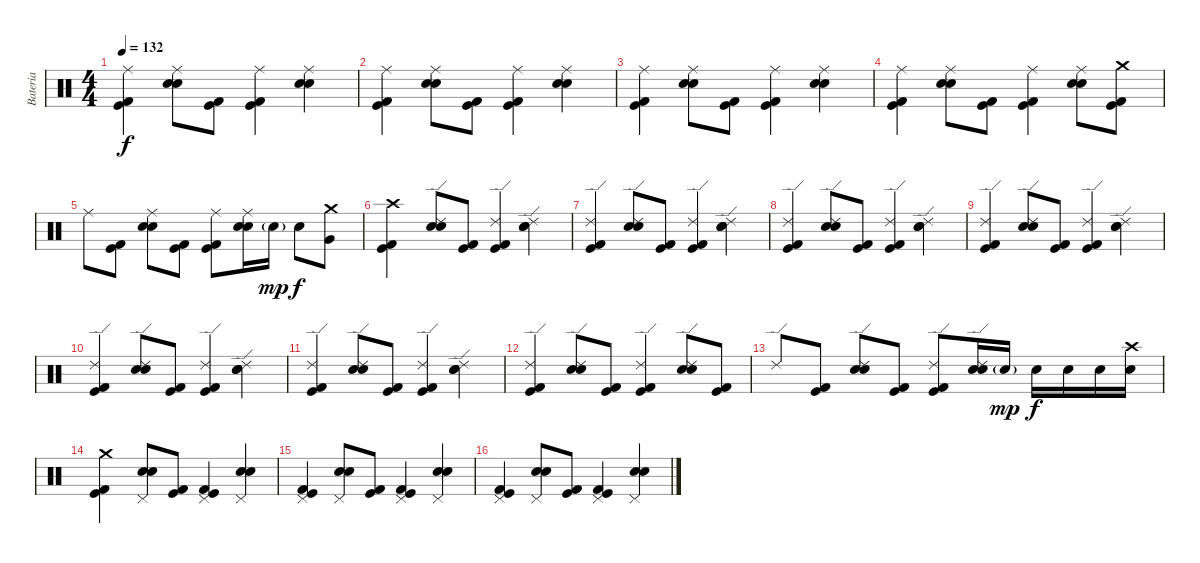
\track ("Bateria" "Bateria") {instrument percussion}
\staff {score}
\articulation defaults
\ts (4 4)
\tempo 132
\clef neutral
\ks c
("Ride (middle)" "Kick (hit) 2" "Kick (hit)").4{dy f} ("Ride (middle)" "Snare (hit) 2" "Electric Snare (hit)").8 ("Kick (hit) 2" "Kick (hit)").8 ("Ride (middle)" "Kick (hit) 2" "Kick (hit)").4 ("Ride (middle)" "Snare (hit) 2" "Electric Snare (hit)").4 |
("Ride (middle)" "Kick (hit) 2" "Kick (hit)").4 ("Ride (middle)" "Snare (hit) 2" "Electric Snare (hit)").8 ("Kick (hit) 2" "Kick (hit)").8 ("Ride (middle)" "Kick (hit) 2" "Kick (hit)").4 ("Ride (middle)" "Snare (hit) 2" "Electric Snare (hit)").4 |
("Ride (middle)" "Kick (hit) 2" "Kick (hit)").4 ("Ride (middle)" "Snare (hit) 2" "Electric Snare (hit)").8 ("Kick (hit) 2" "Kick (hit)").8 ("Ride (middle)" "Kick (hit) 2" "Kick (hit)").4 ("Ride (middle)" "Snare (hit) 2" "Electric Snare (hit)").4 |
("Ride (middle)" "Kick (hit) 2" "Kick (hit)").4 ("Ride (middle)" "Snare (hit) 2" "Electric Snare (hit)").8 ("Kick (hit) 2" "Kick (hit)").8 ("Ride (middle)" "Kick (hit) 2" "Kick (hit)").4 ("Ride (middle)" "Snare (hit) 2" "Electric Snare (hit)").8 ("Crash medium (hit)" "Kick (hit)" "Kick (hit) 2").8 |
"Ride (middle)".8 ("Kick (hit)" "Kick (hit) 2").8 ("Ride (middle)" "Snare (hit) 2" "Electric Snare (hit)").8 ("Kick (hit)" "Kick (hit) 2").8 ("Ride (middle)" "Kick (hit)" "Kick (hit) 2").8 ("Ride (middle)" "Snare (hit) 2" "Electric Snare (hit)").16 "Snare (hit) 2"{g}.16{dy mp} "Snare (hit) 2".8{dy f} ("Crash medium (hit)" "Very Low Tom (hit)").8 |
("Crash high (hit)" "Kick (hit) 2" "Kick (hit)").4 ("Ride (edge) 2" "Snare (hit) 2" "Electric Snare (hit)").8 ("Kick (hit) 2" "Kick (hit)").8 ("Ride (edge) 2" "Kick (hit) 2" "Kick (hit)").4 ("Ride (edge) 2" "Snare (hit) 2" "Electric Snare (hit)").4 |
("Ride (edge) 2" "Kick (hit) 2" "Kick (hit)").4 ("Ride (edge) 2" "Snare (hit) 2" "Electric Snare (hit)").8 ("Kick (hit) 2" "Kick (hit)").8 ("Ride (edge) 2" "Kick (hit) 2" "Kick (hit)").4 ("Ride (edge) 2" "Snare (hit) 2" "Electric Snare (hit)").4 |
("Ride (edge) 2" "Kick (hit) 2" "Kick (hit)").4 ("Ride (edge) 2" "Snare (hit) 2" "Electric Snare (hit)").8 ("Kick (hit) 2" "Kick (hit)").8 ("Ride (edge) 2" "Kick (hit) 2" "Kick (hit)").4 ("Ride (edge) 2" "Snare (hit) 2" "Electric Snare (hit)").4 |
("Ride (edge) 2" "Kick (hit) 2" "Kick (hit)").4 ("Ride (edge) 2" "Snare (hit) 2" "Electric Snare (hit)").8 ("Kick (hit) 2" "Kick (hit)").8 ("Ride (edge) 2" "Kick (hit) 2" "Kick (hit)").4 ("Ride (edge) 2" "Snare (hit) 2" "Electric Snare (hit)").4 |
("Ride (edge) 2" "Kick (hit) 2" "Kick (hit)").4 ("Ride (edge) 2" "Snare (hit) 2" "Electric Snare (hit)").8 ("Kick (hit) 2" "Kick (hit)").8 ("Ride (edge) 2" "Kick (hit) 2" "Kick (hit)").4 ("Ride (edge) 2" "Snare (hit) 2" "Electric Snare (hit)").4 |
("Ride (edge) 2" "Kick (hit) 2" "Kick (hit)").4 ("Ride (edge) 2" "Snare (hit) 2" "Electric Snare (hit)").8 ("Kick (hit) 2" "Kick (hit)").8 ("Ride (edge) 2" "Kick (hit) 2" "Kick (hit)").4 ("Ride (edge) 2" "Snare (hit) 2" "Electric Snare (hit)").4 |
("Ride (edge) 2" "Kick (hit) 2" "Kick (hit)").4 ("Ride (edge) 2" "Snare (hit) 2" "Electric Snare (hit)").8 ("Kick (hit) 2" "Kick (hit)").8 ("Ride (edge) 2" "Kick (hit) 2" "Kick (hit)").4 ("Ride (edge) 2" "Snare (hit) 2" "Electric Snare (hit)").8 ("Kick (hit)" "Kick (hit) 2").8 |
"Ride (edge) 2".8 ("Kick (hit)" "Kick (hit) 2").8 ("Ride (edge) 2" "Snare (hit) 2" "Electric Snare (hit)").8 ("Kick (hit)" "Kick (hit) 2").8 ("Ride (edge) 2" "Kick (hit)" "Kick (hit) 2").8 ("Ride (edge) 2" "Snare (hit) 2" "Electric Snare (hit)").16 "Snare (hit) 2"{g}.16{dy mp} "Snare (hit) 2".16{dy f} "Snare (hit) 2".16 "Snare (hit) 2".16 ("Crash high (hit)" "Snare (hit) 2").16 |
("Crash medium (hit)" "Kick (hit) 2" "Kick (hit)").4 ("Pedal Hi-Hat (hit)" "Snare (hit) 2" "Electric Snare (hit)").8 ("Kick (hit) 2" "Kick (hit)").8 ("Pedal Hi-Hat (hit)" "Kick (hit) 2" "Kick (hit)").4 ("Pedal Hi-Hat (hit)" "Snare (hit) 2" "Electric Snare (hit)").4 |
("Pedal Hi-Hat (hit)" "Kick (hit) 2" "Kick (hit)").4 ("Pedal Hi-Hat (hit)" "Snare (hit) 2" "Electric Snare (hit)").8 ("Kick (hit) 2" "Kick (hit)").8 ("Pedal Hi-Hat (hit)" "Kick (hit) 2" "Kick (hit)").4 ("Pedal Hi-Hat (hit)" "Snare (hit) 2" "Electric Snare (hit)").4 |
("Pedal Hi-Hat (hit)" "Kick (hit) 2" "Kick (hit)").4 ("Pedal Hi-Hat (hit)" "Snare (hit) 2" "Electric Snare (hit)").8 ("Kick (hit) 2" "Kick (hit)").8 ("Pedal Hi-Hat (hit)" "Kick (hit) 2" "Kick (hit)").4 ("Pedal Hi-Hat (hit)" "Snare (hit) 2" "Electric Snare (hit)").4
